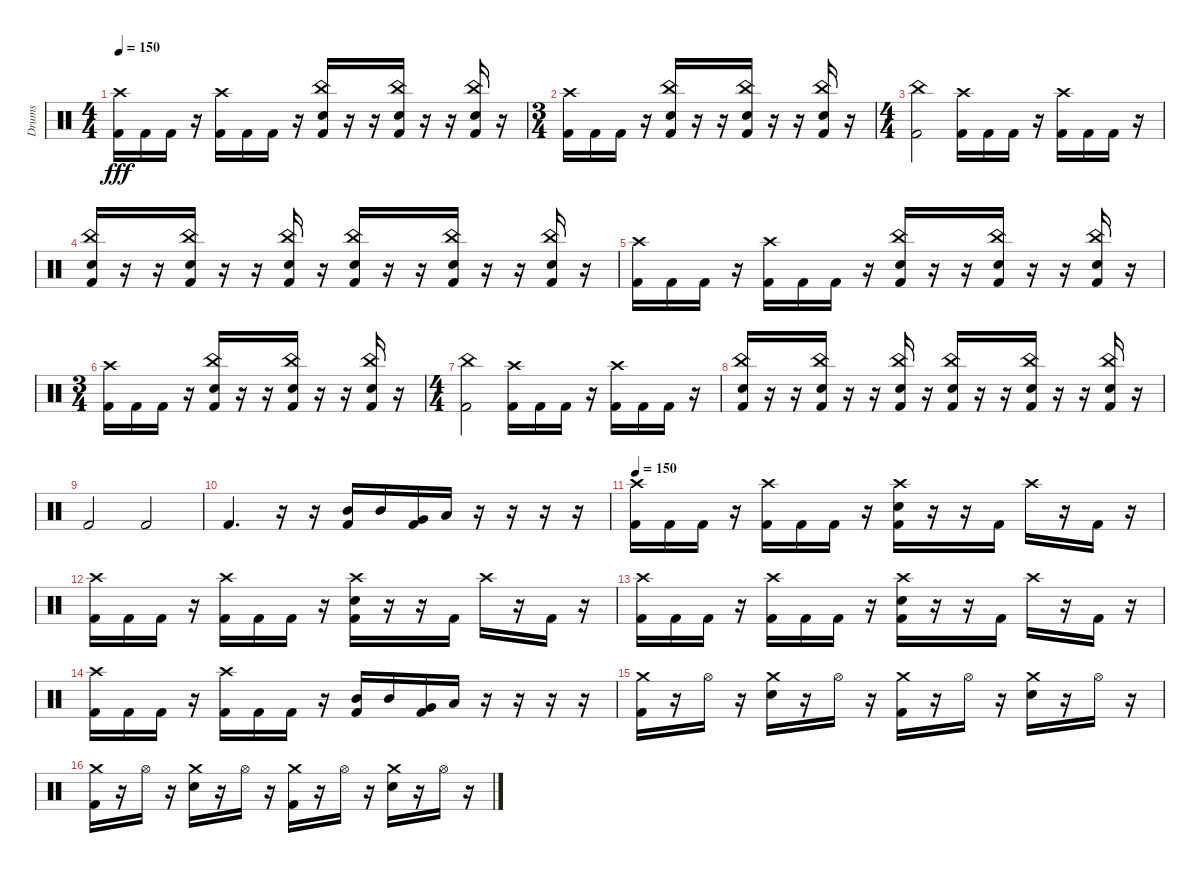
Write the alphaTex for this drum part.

\track ("Drums" "Drums") {instrument percussion}
\staff {score}
\articulation defaults
\ts (4 4)
\tempo 150
\clef neutral
\ks c
("Crash high (hit)" "Kick (hit) 2").16{dy fff} "Kick (hit) 2".16 "Kick (hit) 2".16 r.16 ("Crash high (hit)" "Kick (hit) 2").16 "Kick (hit) 2".16 "Kick (hit) 2".16 r.16 ("China (hit)" "Electric Snare (hit)" "Kick (hit) 2").16 r.16 r.16 ("China (hit)" "Electric Snare (hit)" "Kick (hit) 2").16 r.16 r.16 ("China (hit)" "Electric Snare (hit)" "Kick (hit) 2").16 r.16 |
\ts (3 4)
("Crash high (hit)" "Kick (hit) 2").16 "Kick (hit) 2".16 "Kick (hit) 2".16 r.16 ("China (hit)" "Electric Snare (hit)" "Kick (hit) 2").16 r.16 r.16 ("China (hit)" "Electric Snare (hit)" "Kick (hit) 2").16 r.16 r.16 ("China (hit)" "Electric Snare (hit)" "Kick (hit) 2").16 r.16 |
\ts (4 4)
("China (hit)" "Kick (hit) 2").2 ("Crash high (hit)" "Kick (hit) 2").16 "Kick (hit) 2".16 "Kick (hit) 2".16 r.16 ("Crash high (hit)" "Kick (hit) 2").16 "Kick (hit) 2".16 "Kick (hit) 2".16 r.16 |
("China (hit)" "Electric Snare (hit)" "Kick (hit) 2").16 r.16 r.16 ("China (hit)" "Electric Snare (hit)" "Kick (hit) 2").16 r.16 r.16 ("China (hit)" "Electric Snare (hit)" "Kick (hit) 2").16 r.16 ("China (hit)" "Electric Snare (hit)" "Kick (hit) 2").16 r.16 r.16 ("China (hit)" "Electric Snare (hit)" "Kick (hit) 2").16 r.16 r.16 ("China (hit)" "Electric Snare (hit)" "Kick (hit) 2").16 r.16 |
("Crash high (hit)" "Kick (hit) 2").16 "Kick (hit) 2".16 "Kick (hit) 2".16 r.16 ("Crash high (hit)" "Kick (hit) 2").16 "Kick (hit) 2".16 "Kick (hit) 2".16 r.16 ("China (hit)" "Electric Snare (hit)" "Kick (hit) 2").16 r.16 r.16 ("China (hit)" "Electric Snare (hit)" "Kick (hit) 2").16 r.16 r.16 ("China (hit)" "Electric Snare (hit)" "Kick (hit) 2").16 r.16 |
\ts (3 4)
("Crash high (hit)" "Kick (hit) 2").16 "Kick (hit) 2".16 "Kick (hit) 2".16 r.16 ("China (hit)" "Electric Snare (hit)" "Kick (hit) 2").16 r.16 r.16 ("China (hit)" "Electric Snare (hit)" "Kick (hit) 2").16 r.16 r.16 ("China (hit)" "Electric Snare (hit)" "Kick (hit) 2").16 r.16 |
\ts (4 4)
("China (hit)" "Kick (hit) 2").2 ("Crash high (hit)" "Kick (hit) 2").16 "Kick (hit) 2".16 "Kick (hit) 2".16 r.16 ("Crash high (hit)" "Kick (hit) 2").16 "Kick (hit) 2".16 "Kick (hit) 2".16 r.16 |
("China (hit)" "Electric Snare (hit)" "Kick (hit) 2").16 r.16 r.16 ("China (hit)" "Electric Snare (hit)" "Kick (hit) 2").16 r.16 r.16 ("China (hit)" "Electric Snare (hit)" "Kick (hit) 2").16 r.16 ("China (hit)" "Electric Snare (hit)" "Kick (hit) 2").16 r.16 r.16 ("China (hit)" "Electric Snare (hit)" "Kick (hit) 2").16 r.16 r.16 ("China (hit)" "Electric Snare (hit)" "Kick (hit) 2").16 r.16 |
"Kick (hit) 2".2 "Kick (hit) 2".2 |
"Kick (hit) 2".4{d} r.16 r.16 ("Mid Tom (hit)" "Kick (hit) 2").16 "Mid Tom (hit)".16 ("Very Low Tom (hit)" "Kick (hit) 2").16 "Low Tom (hit)".16 r.16 r.16 r.16 r.16 |
\tempo 150
("Crash high (hit)" "Kick (hit) 2").16 "Kick (hit) 2".16 "Kick (hit) 2".16 r.16 ("Crash high (hit)" "Kick (hit) 2").16 "Kick (hit) 2".16 "Kick (hit) 2".16 r.16 ("Crash high (hit)" "Electric Snare (hit)" "Kick (hit) 2").16 r.16 r.16 "Kick (hit) 2".16 "Crash high (hit)".16 r.16 "Kick (hit) 2".16 r.16 |
("Crash high (hit)" "Kick (hit) 2").16 "Kick (hit) 2".16 "Kick (hit) 2".16 r.16 ("Crash high (hit)" "Kick (hit) 2").16 "Kick (hit) 2".16 "Kick (hit) 2".16 r.16 ("Crash high (hit)" "Electric Snare (hit)" "Kick (hit) 2").16 r.16 r.16 "Kick (hit) 2".16 "Crash high (hit)".16 r.16 "Kick (hit) 2".16 r.16 |
("Crash high (hit)" "Kick (hit) 2").16 "Kick (hit) 2".16 "Kick (hit) 2".16 r.16 ("Crash high (hit)" "Kick (hit) 2").16 "Kick (hit) 2".16 "Kick (hit) 2".16 r.16 ("Crash high (hit)" "Electric Snare (hit)" "Kick (hit) 2").16 r.16 r.16 "Kick (hit) 2".16 "Crash high (hit)".16 r.16 "Kick (hit) 2".16 r.16 |
("Crash high (hit)" "Kick (hit) 2").16 "Kick (hit) 2".16 "Kick (hit) 2".16 r.16 ("Crash high (hit)" "Kick (hit) 2").16 "Kick (hit) 2".16 "Kick (hit) 2".16 r.16 ("Mid Tom (hit)" "Kick (hit) 2").16 "Mid Tom (hit)".16 ("Very Low Tom (hit)" "Kick (hit) 2").16 "Low Tom (hit)".16 r.16 r.16 r.16 r.16 |
("Crash medium (hit)" "Kick (hit) 2").16 r.16 "Hi-Hat (open)".16 r.16 ("Crash medium (hit)" "Electric Snare (hit)").16 r.16 "Hi-Hat (open)".16 r.16 ("Crash medium (hit)" "Kick (hit) 2").16 r.16 "Hi-Hat (open)".16 r.16 ("Crash medium (hit)" "Electric Snare (hit)").16 r.16 "Hi-Hat (open)".16 r.16 |
("Crash medium (hit)" "Kick (hit) 2").16 r.16 "Hi-Hat (open)".16 r.16 ("Crash medium (hit)" "Electric Snare (hit)").16 r.16 "Hi-Hat (open)".16 r.16 ("Crash medium (hit)" "Kick (hit) 2").16 r.16 "Hi-Hat (open)".16 r.16 ("Crash medium (hit)" "Electric Snare (hit)").16 r.16 "Hi-Hat (open)".16 r.16
